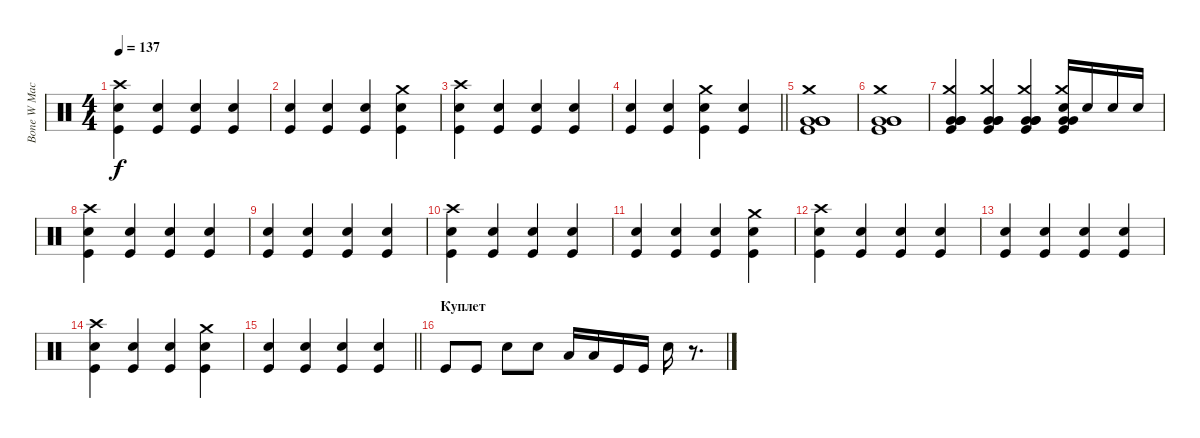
\track ("Bone W Machine Drums" "Bone W Mac") {instrument percussion}
\staff {score}
\articulation defaults
\ts (4 4)
\tempo 137
\clef neutral
\ks c
("Crash high (hit)" "Snare (hit) 2" "Kick (hit)").4{dy f} ("Snare (hit) 2" "Kick (hit)").4 ("Snare (hit) 2" "Kick (hit)").4 ("Snare (hit) 2" "Kick (hit)").4 |
("Snare (hit) 2" "Kick (hit)").4 ("Snare (hit) 2" "Kick (hit)").4 ("Snare (hit) 2" "Kick (hit)").4 ("Crash medium (hit)" "Snare (hit) 2" "Kick (hit)").4 |
("Crash high (hit)" "Snare (hit) 2" "Kick (hit)").4 ("Snare (hit) 2" "Kick (hit)").4 ("Snare (hit) 2" "Kick (hit)").4 ("Snare (hit) 2" "Kick (hit)").4 |
\barLineRight lightlight
("Snare (hit) 2" "Kick (hit)").4 ("Snare (hit) 2" "Kick (hit)").4 ("Crash medium (hit)" "Snare (hit) 2" "Kick (hit)").4 ("Snare (hit) 2" "Kick (hit)").4 |
("Crash medium (hit)" "Very Low Tom (hit)" "Very Low Tom (hit)" "Very Low Tom (hit)" "Kick (hit)").1 |
("Crash medium (hit)" "Very Low Tom (hit)" "Very Low Tom (hit)" "Very Low Tom (hit)" "Kick (hit)").1 |
("Crash medium (hit)" "Very Low Tom (hit)" "Very Low Tom (hit)" "Very Low Tom (hit)" "Kick (hit)").4 ("Crash medium (hit)" "Very Low Tom (hit)" "Very Low Tom (hit)" "Very Low Tom (hit)" "Kick (hit)").4 ("Crash medium (hit)" "Very Low Tom (hit)" "Very Low Tom (hit)" "Very Low Tom (hit)" "Kick (hit)").4 ("Crash medium (hit)" "Snare (hit) 2" "Very Low Tom (hit)" "Very Low Tom (hit)" "Kick (hit)").16 "Snare (hit) 2".16 "Snare (hit) 2".16 "Snare (hit) 2".16 |
("Crash high (hit)" "Snare (hit) 2" "Kick (hit)").4 ("Snare (hit) 2" "Kick (hit)").4 ("Snare (hit) 2" "Kick (hit)").4 ("Snare (hit) 2" "Kick (hit)").4 |
("Snare (hit) 2" "Kick (hit)").4 ("Snare (hit) 2" "Kick (hit)").4 ("Snare (hit) 2" "Kick (hit)").4 ("Snare (hit) 2" "Kick (hit)").4 |
("Crash high (hit)" "Snare (hit) 2" "Kick (hit)").4 ("Snare (hit) 2" "Kick (hit)").4 ("Snare (hit) 2" "Kick (hit)").4 ("Snare (hit) 2" "Kick (hit)").4 |
("Snare (hit) 2" "Kick (hit)").4 ("Snare (hit) 2" "Kick (hit)").4 ("Snare (hit) 2" "Kick (hit)").4 ("Crash medium (hit)" "Snare (hit) 2" "Kick (hit)").4 |
("Crash high (hit)" "Snare (hit) 2" "Kick (hit)").4 ("Snare (hit) 2" "Kick (hit)").4 ("Snare (hit) 2" "Kick (hit)").4 ("Snare (hit) 2" "Kick (hit)").4 |
("Snare (hit) 2" "Kick (hit)").4 ("Snare (hit) 2" "Kick (hit)").4 ("Snare (hit) 2" "Kick (hit)").4 ("Snare (hit) 2" "Kick (hit)").4 |
("Crash high (hit)" "Snare (hit) 2" "Kick (hit)").4 ("Snare (hit) 2" "Kick (hit)").4 ("Snare (hit) 2" "Kick (hit)").4 ("Crash medium (hit)" "Snare (hit) 2" "Kick (hit)").4 |
\barLineRight lightlight
("Snare (hit) 2" "Kick (hit)").4 ("Snare (hit) 2" "Kick (hit)").4 ("Snare (hit) 2" "Kick (hit)").4 ("Snare (hit) 2" "Kick (hit)").4 |
\section ("" "Куплет")
"Kick (hit)".8 "Kick (hit)".8 "Snare (hit) 2".8 "Snare (hit) 2".8 "Low Tom (hit)".16 "Low Tom (hit)".16 "Kick (hit)".16 "Kick (hit)".16 "Snare (hit) 2".16 r.8{d}
